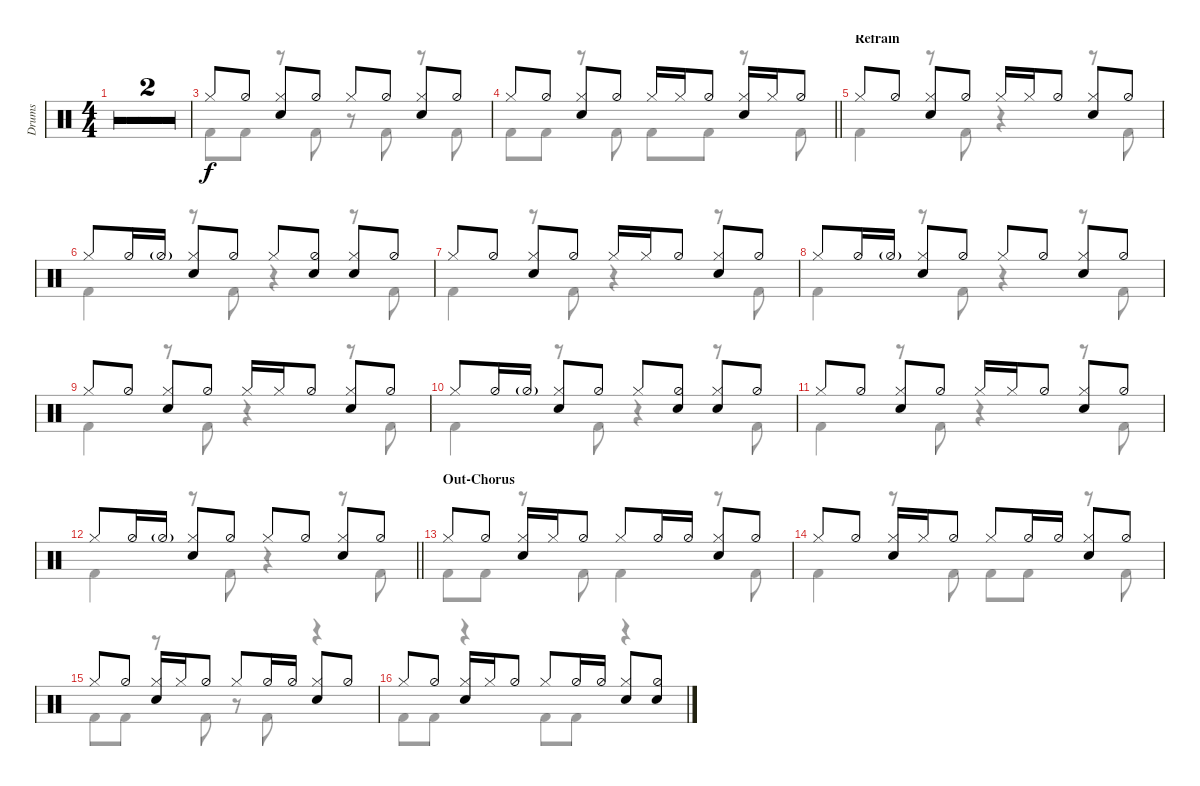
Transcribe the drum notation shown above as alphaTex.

\defaultSystemsLayout 4
\bracketExtendMode groupsimilarinstruments
\otherSystemsTrackNameOrientation horizontal
\track ("Drums" "Drums") {multiBarRest instrument percussion}
\staff {score}
\articulation defaults
\voice
\ts (4 4)
\tempo 120
\clef neutral
\simile firstofdouble
\ks c
|
\simile secondofdouble
|
\simile none "Hi-Hat (closed)".8{beam Up} "Hi-Hat (half)".8{beam Up}
("Hi-Hat (closed)" "Snare (hit) 2").8{beam Up} "Hi-Hat (half)".8{beam Up} "Hi-Hat (closed)".8{beam Up} "Hi-Hat (half)".8{beam Up} ("Hi-Hat (closed)" "Snare (hit) 2").8{beam Up} "Hi-Hat (half)".8{beam Up} |
\barLineRight lightlight "Hi-Hat (closed)".8{beam Up} "Hi-Hat (half)".8{beam Up}
("Hi-Hat (closed)" "Snare (hit) 2").8{beam Up} "Hi-Hat (half)".8{beam Up} "Hi-Hat (closed)".16{beam Up} "Hi-Hat (closed)".16{beam Up} "Hi-Hat (half)".8{beam Up} ("Hi-Hat (closed)" "Snare (hit) 2").16{beam Up} "Hi-Hat (closed)".16{beam Up} "Hi-Hat (half)".8{beam Up} |
\section ("" "Refrain")
"Hi-Hat (closed)".8{beam Up} "Hi-Hat (half)".8{beam Up} ("Hi-Hat (closed)" "Snare (hit) 2").8{beam Up} "Hi-Hat (half)".8{beam Up} "Hi-Hat (closed)".16{beam Up} "Hi-Hat (closed)".16{beam Up} "Hi-Hat (half)".8{beam Up} ("Hi-Hat (closed)" "Snare (hit) 2").8{beam Up} "Hi-Hat (half)".8{beam Up} |
"Hi-Hat (closed)".8{beam Up} "Hi-Hat (half)".16{beam Up} "Hi-Hat (half)"{g}.16{beam Up} ("Hi-Hat (closed)" "Snare (hit) 2").8{beam Up} "Hi-Hat (half)".8{beam Up} "Hi-Hat (closed)".8{beam Up} ("Hi-Hat (half)" "Snare (hit) 2").8{beam Up} ("Hi-Hat (closed)" "Snare (hit) 2").8{beam Up} "Hi-Hat (half)".8{beam Up} |
"Hi-Hat (closed)".8{beam Up} "Hi-Hat (half)".8{beam Up} ("Hi-Hat (closed)" "Snare (hit) 2").8{beam Up} "Hi-Hat (half)".8{beam Up} "Hi-Hat (closed)".16{beam Up} "Hi-Hat (closed)".16{beam Up} "Hi-Hat (half)".8{beam Up} ("Hi-Hat (closed)" "Snare (hit) 2").8{beam Up} "Hi-Hat (half)".8{beam Up} |
"Hi-Hat (closed)".8{beam Up} "Hi-Hat (half)".16{beam Up} "Hi-Hat (half)"{g}.16{beam Up} ("Hi-Hat (closed)" "Snare (hit) 2").8{beam Up} "Hi-Hat (half)".8{beam Up} "Hi-Hat (closed)".8{beam Up} "Hi-Hat (half)".8{beam Up} ("Hi-Hat (closed)" "Snare (hit) 2").8{beam Up} "Hi-Hat (half)".8{beam Up} |
"Hi-Hat (closed)".8{beam Up} "Hi-Hat (half)".8{beam Up} ("Hi-Hat (closed)" "Snare (hit) 2").8{beam Up} "Hi-Hat (half)".8{beam Up} "Hi-Hat (closed)".16{beam Up} "Hi-Hat (closed)".16{beam Up} "Hi-Hat (half)".8{beam Up} ("Hi-Hat (closed)" "Snare (hit) 2").8{beam Up} "Hi-Hat (half)".8{beam Up} |
"Hi-Hat (closed)".8{beam Up} "Hi-Hat (half)".16{beam Up} "Hi-Hat (half)"{g}.16{beam Up} ("Hi-Hat (closed)" "Snare (hit) 2").8{beam Up} "Hi-Hat (half)".8{beam Up} "Hi-Hat (closed)".8{beam Up} ("Hi-Hat (half)" "Snare (hit) 2").8{beam Up} ("Hi-Hat (closed)" "Snare (hit) 2").8{beam Up} "Hi-Hat (half)".8{beam Up} |
"Hi-Hat (closed)".8{beam Up} "Hi-Hat (half)".8{beam Up} ("Hi-Hat (closed)" "Snare (hit) 2").8{beam Up} "Hi-Hat (half)".8{beam Up} "Hi-Hat (closed)".16{beam Up} "Hi-Hat (closed)".16{beam Up} "Hi-Hat (half)".8{beam Up} ("Hi-Hat (closed)" "Snare (hit) 2").8{beam Up} "Hi-Hat (half)".8{beam Up} |
\barLineRight lightlight "Hi-Hat (closed)".8{beam Up} "Hi-Hat (half)".16{beam Up} "Hi-Hat (half)"{g}.16{beam Up}
("Hi-Hat (closed)" "Snare (hit) 2").8{beam Up} "Hi-Hat (half)".8{beam Up} "Hi-Hat (closed)".8{beam Up} "Hi-Hat (half)".8{beam Up} ("Hi-Hat (closed)" "Snare (hit) 2").8{beam Up} "Hi-Hat (half)".8{beam Up} |
\section ("" "Out-Chorus")
"Hi-Hat (closed)".8{beam Up} "Hi-Hat (half)".8{beam Up} ("Hi-Hat (closed)" "Snare (hit) 2").16{beam Up} "Hi-Hat (closed)".16{beam Up} "Hi-Hat (half)".8{beam Up} "Hi-Hat (closed)".8{beam Up} "Hi-Hat (half)".16{beam Up} "Hi-Hat (half)".16{beam Up} ("Hi-Hat (closed)" "Snare (hit) 2").8{beam Up} "Hi-Hat (half)".8{beam Up} |
"Hi-Hat (closed)".8{beam Up} "Hi-Hat (half)".8{beam Up} ("Hi-Hat (closed)" "Snare (hit) 2").16{beam Up} "Hi-Hat (closed)".16{beam Up} "Hi-Hat (half)".8{beam Up} "Hi-Hat (closed)".8{beam Up} "Hi-Hat (half)".16{beam Up} "Hi-Hat (half)".16{beam Up} ("Hi-Hat (closed)" "Snare (hit) 2").8{beam Up} "Hi-Hat (half)".8{beam Up} |
"Hi-Hat (closed)".8{beam Up} "Hi-Hat (half)".8{beam Up} ("Hi-Hat (closed)" "Snare (hit) 2").16{beam Up} "Hi-Hat (closed)".16{beam Up} "Hi-Hat (half)".8{beam Up} "Hi-Hat (closed)".8{beam Up} "Hi-Hat (half)".16{beam Up} "Hi-Hat (half)".16{beam Up} ("Hi-Hat (closed)" "Snare (hit) 2").8{beam Up} "Hi-Hat (half)".8{beam Up} |
"Hi-Hat (closed)".8{beam Up} "Hi-Hat (half)".8{beam Up} ("Hi-Hat (closed)" "Snare (hit) 2").16{beam Up} "Hi-Hat (closed)".16{beam Up} "Hi-Hat (half)".8{beam Up} "Hi-Hat (closed)".8{beam Up} "Hi-Hat (half)".16{beam Up} "Hi-Hat (half)".16{beam Up} ("Hi-Hat (closed)" "Snare (hit) 2").8{beam Up} ("Hi-Hat (half)" "Snare (hit) 2").8{beam Up}
\voice
\clef neutral
\ottava regular
\simile firstofdouble
\ks c
|
\simile secondofdouble
|
\simile none "Kick (hit) 2".8{beam Down} "Kick (hit) 2".8{beam Down}
r.8{beam Down} "Kick (hit) 2".8{beam Down} r.8{beam Down} "Kick (hit) 2".8{beam Down} r.8{beam Down} "Kick (hit) 2".8{beam Down} |
\barLineRight lightlight "Kick (hit) 2".8{beam Down} "Kick (hit) 2".8{beam Down}
r.8{beam Down} "Kick (hit) 2".8{beam Down} "Kick (hit) 2".8{beam Down} "Kick (hit) 2".8{beam Down} r.8{beam Down} "Kick (hit) 2".8{beam Down} |
"Kick (hit) 2".4{beam Down} r.8{beam Down} "Kick (hit) 2".8{beam Down} r.4{beam Down} r.8{beam Down} "Kick (hit) 2".8{beam Down} |
"Kick (hit) 2".4{beam Down} r.8{beam Down} "Kick (hit) 2".8{beam Down} r.4{beam Down} r.8{beam Down} "Kick (hit) 2".8{beam Down} |
"Kick (hit) 2".4{beam Down} r.8{beam Down} "Kick (hit) 2".8{beam Down} r.4{beam Down} r.8{beam Down} "Kick (hit) 2".8{beam Down} |
"Kick (hit) 2".4{beam Down} r.8{beam Down} "Kick (hit) 2".8{beam Down} r.4{beam Down} r.8{beam Down} "Kick (hit) 2".8{beam Down} |
"Kick (hit) 2".4{beam Down} r.8{beam Down} "Kick (hit) 2".8{beam Down} r.4{beam Down} r.8{beam Down} "Kick (hit) 2".8{beam Down} |
"Kick (hit) 2".4{beam Down} r.8{beam Down} "Kick (hit) 2".8{beam Down} r.4{beam Down} r.8{beam Down} "Kick (hit) 2".8{beam Down} |
"Kick (hit) 2".4{beam Down} r.8{beam Down} "Kick (hit) 2".8{beam Down} r.4{beam Down} r.8{beam Down} "Kick (hit) 2".8{beam Down} |
\barLineRight lightlight "Kick (hit) 2".4{beam Down}
r.8{beam Down} "Kick (hit) 2".8{beam Down} r.4{beam Down} r.8{beam Down} "Kick (hit) 2".8{beam Down} |
"Kick (hit) 2".8{beam Down} "Kick (hit) 2".8{beam Down} r.8{beam Down} "Kick (hit) 2".8{beam Down} "Kick (hit) 2".4{beam Down} r.8{beam Down} "Kick (hit) 2".8{beam Down} |
"Kick (hit) 2".4{beam Down} r.8{beam Down} "Kick (hit) 2".8{beam Down} "Kick (hit) 2".8{beam Down} "Kick (hit) 2".8{beam Down} r.8{beam Down} "Kick (hit) 2".8{beam Down} |
"Kick (hit) 2".8{beam Down} "Kick (hit) 2".8{beam Down} r.8{beam Down} "Kick (hit) 2".8{beam Down} r.8{beam Down} "Kick (hit) 2".8{beam Down} r.4{beam Down} |
"Kick (hit) 2".8{beam Down} "Kick (hit) 2".8{beam Down} r.4{beam Down} "Kick (hit) 2".8{beam Down} "Kick (hit) 2".8{beam Down} r.4{beam Down}
